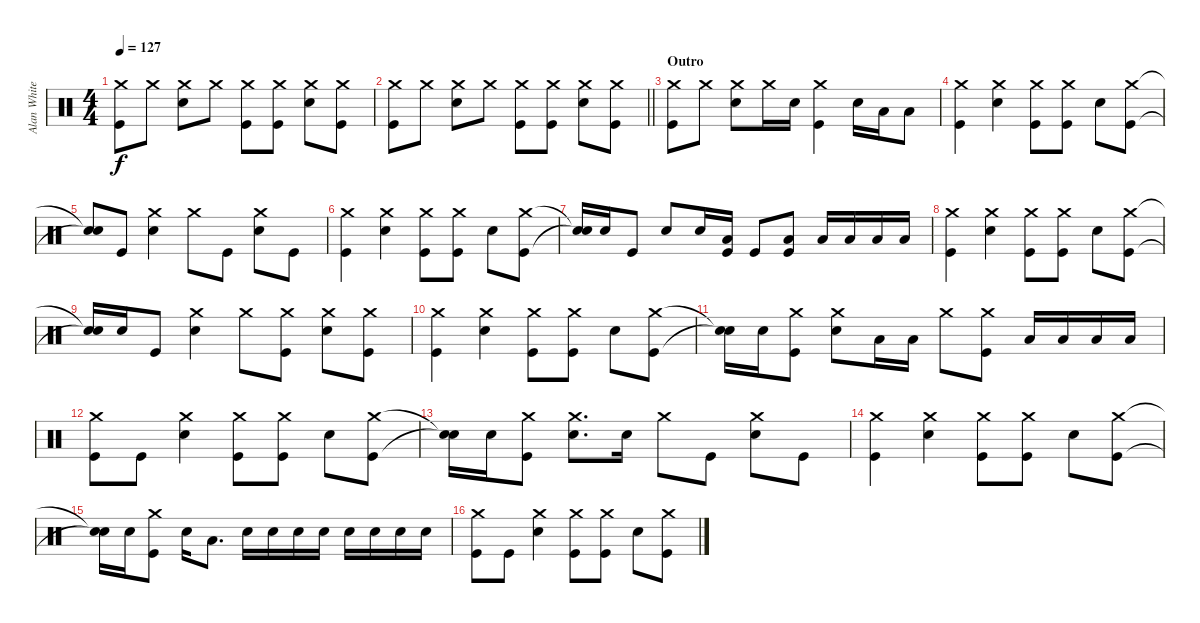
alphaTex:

\track ("Alan White (Percussion)" "Alan White") {instrument percussion}
\staff {score}
\articulation defaults
\ts (4 4)
\tempo 127
\clef neutral
\ks c
("Crash medium (hit)" "Kick (hit)").8{dy f} "Crash medium (hit)".8 ("Crash medium (hit)" "Snare (hit) 2").8 "Crash medium (hit)".8 ("Crash medium (hit)" "Kick (hit)").8 ("Crash medium (hit)" "Kick (hit)").8 ("Crash medium (hit)" "Snare (hit) 2").8 ("Crash medium (hit)" "Kick (hit)").8 |
\barLineRight lightlight
("Crash medium (hit)" "Kick (hit)").8 "Crash medium (hit)".8 ("Crash medium (hit)" "Snare (hit) 2").8 "Crash medium (hit)".8 ("Crash medium (hit)" "Kick (hit)").8 ("Crash medium (hit)" "Kick (hit)").8 ("Crash medium (hit)" "Snare (hit) 2").8 ("Crash medium (hit)" "Kick (hit)").8 |
\section ("" "Outro")
("Crash medium (hit)" "Kick (hit)").8 "Crash medium (hit)".8 ("Crash medium (hit)" "Snare (hit) 2").8 "Crash medium (hit)".16 "Snare (hit) 2".16 ("Crash medium (hit)" "Kick (hit)").4 "Snare (hit) 2".16 "Low Tom (hit)".16 "Low Tom (hit)".8 |
("Crash medium (hit)" "Kick (hit)").4 ("Crash medium (hit)" "Snare (hit) 2").4 ("Crash medium (hit)" "Kick (hit)").8 ("Crash medium (hit)" "Kick (hit)").8 "Snare (hit) 2".8 ("Crash medium (hit)" "Kick (hit)").8 |
("Snare (hit)"{t} "Snare (hit)"{t}).8 "Kick (hit)".8 ("Crash medium (hit)" "Snare (hit) 2").4 "Crash medium (hit)".8 "Kick (hit)".8 ("Crash medium (hit)" "Snare (hit) 2").8 "Kick (hit)".8 |
("Crash medium (hit)" "Kick (hit)").4 ("Crash medium (hit)" "Snare (hit) 2").4 ("Crash medium (hit)" "Kick (hit)").8 ("Crash medium (hit)" "Kick (hit)").8 "Snare (hit) 2".8 ("Crash medium (hit)" "Kick (hit)").8 |
("Snare (hit)"{t} "Snare (hit)"{t}).16 "Snare (hit) 2".16 "Kick (hit)".8 "Snare (hit) 2".8 "Snare (hit) 2".16 ("Low Tom (hit)" "Kick (hit)").16 "Kick (hit)".8 ("Low Tom (hit)" "Kick (hit)").8 "Low Tom (hit)".16 "Low Tom (hit)".16 "Low Tom (hit)".16 "Low Tom (hit)".16 |
("Crash medium (hit)" "Kick (hit)").4 ("Crash medium (hit)" "Snare (hit) 2").4 ("Crash medium (hit)" "Kick (hit)").8 ("Crash medium (hit)" "Kick (hit)").8 "Snare (hit) 2".8 ("Crash medium (hit)" "Kick (hit)").8 |
("Snare (hit)"{t} "Snare (hit)"{t}).16 "Snare (hit) 2".16 "Kick (hit)".8 ("Crash medium (hit)" "Snare (hit) 2").4 "Crash medium (hit)".8 ("Crash medium (hit)" "Kick (hit)").8 ("Crash medium (hit)" "Snare (hit) 2").8 ("Crash medium (hit)" "Kick (hit)").8 |
("Crash medium (hit)" "Kick (hit)").4 ("Crash medium (hit)" "Snare (hit) 2").4 ("Crash medium (hit)" "Kick (hit)").8 ("Crash medium (hit)" "Kick (hit)").8 "Snare (hit) 2".8 ("Crash medium (hit)" "Kick (hit)").8 |
("Snare (hit)"{t} "Snare (hit)"{t}).16 "Snare (hit) 2".16 ("Crash medium (hit)" "Kick (hit)").8 ("Crash medium (hit)" "Snare (hit) 2").8 "Low Tom (hit)".16 "Low Tom (hit)".16 "Crash medium (hit)".8 ("Crash medium (hit)" "Kick (hit)").8 "Low Tom (hit)".16 "Low Tom (hit)".16 "Low Tom (hit)".16 "Low Tom (hit)".16 |
("Crash medium (hit)" "Kick (hit)").8 "Kick (hit)".8 ("Crash medium (hit)" "Snare (hit) 2").4 ("Crash medium (hit)" "Kick (hit)").8 ("Crash medium (hit)" "Kick (hit)").8 "Snare (hit) 2".8 ("Crash medium (hit)" "Kick (hit)").8 |
("Snare (hit)"{t} "Snare (hit)"{t}).16 "Snare (hit) 2".16 ("Crash medium (hit)" "Kick (hit)").8 ("Crash medium (hit)" "Snare (hit) 2").8{d} "Snare (hit) 2".16 "Crash medium (hit)".8 "Kick (hit)".8 ("Crash medium (hit)" "Snare (hit) 2").8 "Kick (hit)".8 |
("Crash medium (hit)" "Kick (hit)").4 ("Crash medium (hit)" "Snare (hit) 2").4 ("Crash medium (hit)" "Kick (hit)").8 ("Crash medium (hit)" "Kick (hit)").8 "Snare (hit) 2".8 ("Crash medium (hit)" "Kick (hit)").8 |
("Snare (hit)"{t} "Snare (hit)"{t}).16 "Snare (hit) 2".16 ("Crash medium (hit)" "Kick (hit)").8 "Snare (hit) 2".16 "Low Tom (hit)".8{d} "Snare (hit) 2".16 "Snare (hit) 2".16 "Snare (hit) 2".16 "Snare (hit) 2".16 "Snare (hit) 2".16 "Snare (hit) 2".16 "Snare (hit) 2".16 "Snare (hit) 2".16 |
("Crash medium (hit)" "Kick (hit)").8 "Kick (hit)".8 ("Crash medium (hit)" "Snare (hit) 2").4 ("Crash medium (hit)" "Kick (hit)").8 ("Crash medium (hit)" "Kick (hit)").8 "Snare (hit) 2".8 ("Crash medium (hit)" "Kick (hit)").8
